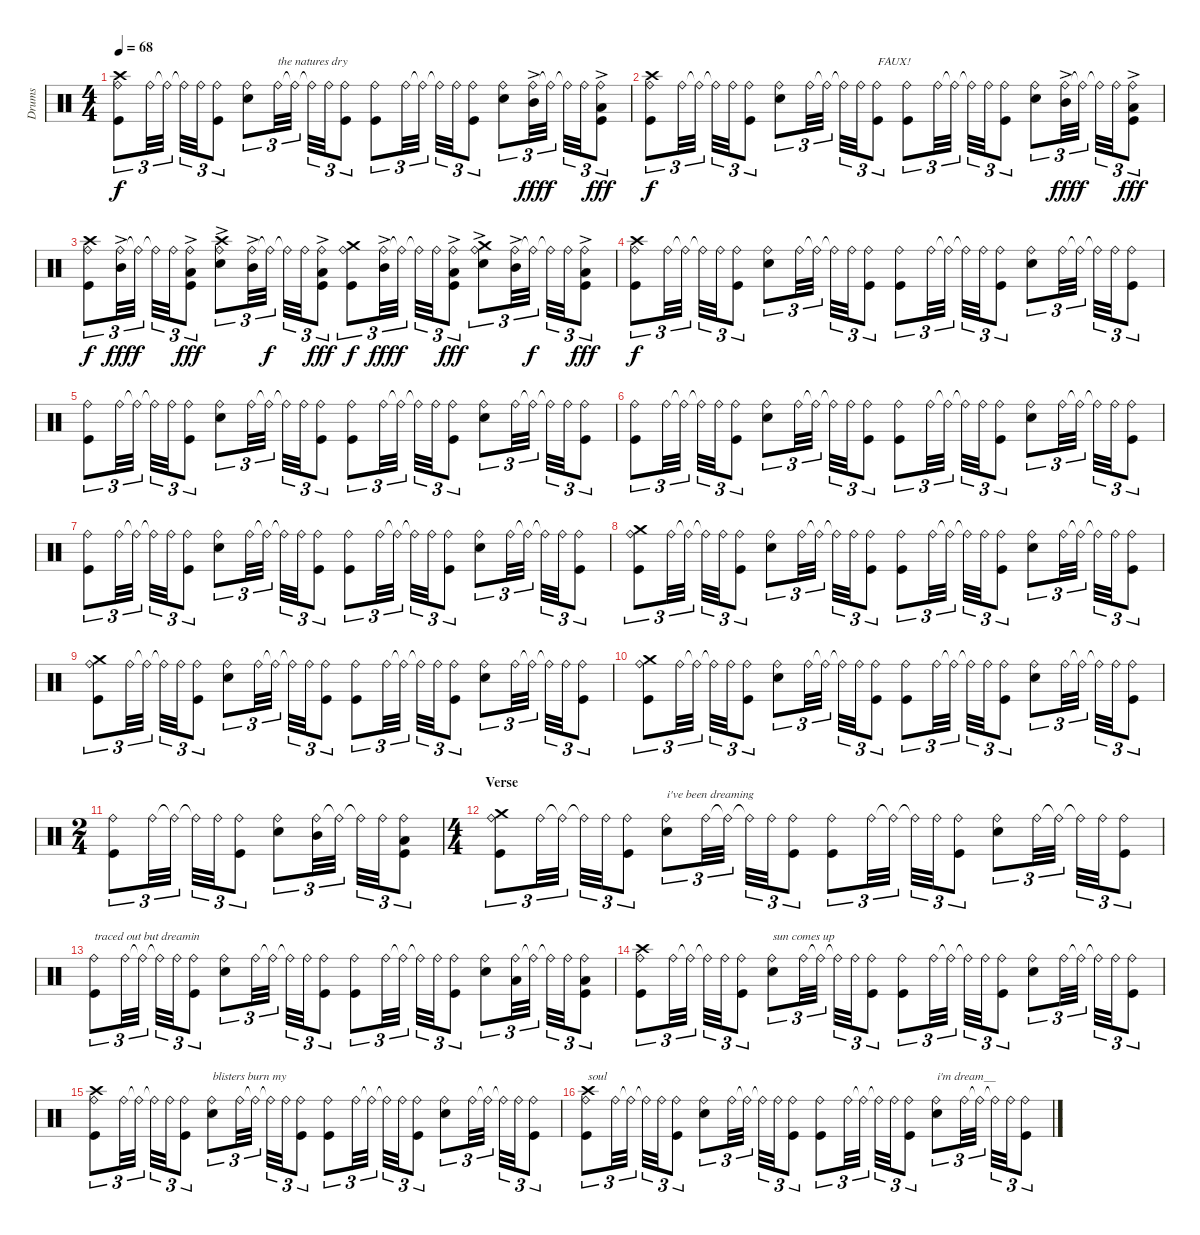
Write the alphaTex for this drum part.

\track ("Drums" "Drums") {instrument percussion}
\staff {score}
\articulation defaults
\ts (4 4)
\tempo 68
\clef neutral
\ks c
("Ride (bell)" "Crash high (hit)" "Kick (hit)").8{tu (3 2) dy f} "Ride (bell)".32{tu (3 2)} "Ride (bell)"{t}.32{tu (3 2)} "Ride (bell)"{t}.32{tu (3 2)} "Ride (bell)".32{tu (3 2)} ("Ride (bell)" "Kick (hit)").8{tu (3 2)} ("Ride (bell)" "Snare (hit) 2").8{tu (3 2)} "Ride (bell)".32{tu (3 2) txt "the natures dry"} "Ride (bell)"{t}.32{tu (3 2)} "Ride (bell)"{t}.32{tu (3 2)} "Ride (bell)".32{tu (3 2)} ("Ride (bell)" "Kick (hit)").8{tu (3 2)} ("Ride (bell)" "Kick (hit)").8{tu (3 2)} "Ride (bell)".32{tu (3 2)} "Ride (bell)"{t}.32{tu (3 2)} "Ride (bell)"{t}.32{tu (3 2)} "Ride (bell)".32{tu (3 2)} ("Ride (bell)" "Kick (hit)").8{tu (3 2)} ("Ride (bell)" "Snare (hit) 2").8{tu (3 2)} ("Ride (bell)" "Mid Tom (hit)"{ac}).32{tu (3 2) dy fff} "Ride (bell)"{t}.32{tu (3 2) dy f} "Ride (bell)"{t}.32{tu (3 2)} "Ride (bell)".32{tu (3 2)} ("Ride (bell)" "Low Tom (hit)"{ac} "Kick (hit)").8{tu (3 2) dy fff} |
("Ride (bell)" "Crash high (hit)" "Kick (hit)").8{tu (3 2) dy f} "Ride (bell)".32{tu (3 2)} "Ride (bell)"{t}.32{tu (3 2)} "Ride (bell)"{t}.32{tu (3 2)} "Ride (bell)".32{tu (3 2)} ("Ride (bell)" "Kick (hit)").8{tu (3 2)} ("Ride (bell)" "Snare (hit) 2").8{tu (3 2)} "Ride (bell)".32{tu (3 2)} "Ride (bell)"{t}.32{tu (3 2)} "Ride (bell)"{t}.32{tu (3 2)} "Ride (bell)".32{tu (3 2)} ("Ride (bell)" "Kick (hit)").8{tu (3 2) txt "FAUX!"} ("Ride (bell)" "Kick (hit)").8{tu (3 2)} "Ride (bell)".32{tu (3 2)} "Ride (bell)"{t}.32{tu (3 2)} "Ride (bell)"{t}.32{tu (3 2)} "Ride (bell)".32{tu (3 2)} ("Ride (bell)" "Kick (hit)").8{tu (3 2)} ("Ride (bell)" "Snare (hit) 2").8{tu (3 2)} ("Ride (bell)" "Mid Tom (hit)"{ac}).32{tu (3 2) dy fff} "Ride (bell)"{t}.32{tu (3 2) dy f} "Ride (bell)"{t}.32{tu (3 2)} "Ride (bell)".32{tu (3 2)} ("Ride (bell)" "Low Tom (hit)"{ac} "Kick (hit)").8{tu (3 2) dy fff} |
("Ride (bell)" "Crash high (hit)" "Kick (hit)").8{tu (3 2) dy f} ("Ride (bell)" "Mid Tom (hit)"{ac}).32{tu (3 2) dy fff} "Ride (bell)"{t}.32{tu (3 2) dy f} "Ride (bell)"{t}.32{tu (3 2)} "Ride (bell)".32{tu (3 2)} ("Ride (bell)" "Low Tom (hit)"{ac} "Kick (hit)").8{tu (3 2) dy fff} ("Ride (bell)" "Crash high (hit)" "Snare (hit) 2"{ac}).8{tu (3 2)} ("Ride (bell)" "Mid Tom (hit)"{ac}).32{tu (3 2)} "Ride (bell)"{t}.32{tu (3 2) dy f} "Ride (bell)"{t}.32{tu (3 2)} "Ride (bell)".32{tu (3 2)} ("Ride (bell)" "Low Tom (hit)"{ac} "Kick (hit)").8{tu (3 2) dy fff} ("Ride (bell)" "Crash medium (hit)" "Kick (hit)").8{tu (3 2) dy f} ("Ride (bell)" "Mid Tom (hit)"{ac}).32{tu (3 2) dy fff} "Ride (bell)"{t}.32{tu (3 2) dy f} "Ride (bell)"{t}.32{tu (3 2)} "Ride (bell)".32{tu (3 2)} ("Ride (bell)" "Low Tom (hit)"{ac} "Kick (hit)").8{tu (3 2) dy fff} ("Ride (bell)" "Crash medium (hit)" "Snare (hit) 2"{ac}).8{tu (3 2)} ("Ride (bell)" "Mid Tom (hit)"{ac}).32{tu (3 2)} "Ride (bell)"{t}.32{tu (3 2) dy f} "Ride (bell)"{t}.32{tu (3 2)} "Ride (bell)".32{tu (3 2)} ("Ride (bell)" "Low Tom (hit)"{ac} "Kick (hit)").8{tu (3 2) dy fff} |
\section ("" "")
("Ride (bell)" "Crash high (hit)" "Kick (hit)").8{tu (3 2) dy f} "Ride (bell)".32{tu (3 2)} "Ride (bell)"{t}.32{tu (3 2)} "Ride (bell)"{t}.32{tu (3 2)} "Ride (bell)".32{tu (3 2)} ("Ride (bell)" "Kick (hit)").8{tu (3 2)} ("Ride (bell)" "Snare (hit) 2").8{tu (3 2)} "Ride (bell)".32{tu (3 2)} "Ride (bell)"{t}.32{tu (3 2)} "Ride (bell)"{t}.32{tu (3 2)} "Ride (bell)".32{tu (3 2)} ("Ride (bell)" "Kick (hit)").8{tu (3 2)} ("Ride (bell)" "Kick (hit)").8{tu (3 2)} "Ride (bell)".32{tu (3 2)} "Ride (bell)"{t}.32{tu (3 2)} "Ride (bell)"{t}.32{tu (3 2)} "Ride (bell)".32{tu (3 2)} ("Ride (bell)" "Kick (hit)").8{tu (3 2)} ("Ride (bell)" "Snare (hit) 2").8{tu (3 2)} "Ride (bell)".32{tu (3 2)} "Ride (bell)"{t}.32{tu (3 2)} "Ride (bell)"{t}.32{tu (3 2)} "Ride (bell)".32{tu (3 2)} ("Ride (bell)" "Kick (hit)").8{tu (3 2)} |
("Ride (bell)" "Kick (hit)").8{tu (3 2)} "Ride (bell)".32{tu (3 2)} "Ride (bell)"{t}.32{tu (3 2)} "Ride (bell)"{t}.32{tu (3 2)} "Ride (bell)".32{tu (3 2)} ("Ride (bell)" "Kick (hit)").8{tu (3 2)} ("Ride (bell)" "Snare (hit) 2").8{tu (3 2)} "Ride (bell)".32{tu (3 2)} "Ride (bell)"{t}.32{tu (3 2)} "Ride (bell)"{t}.32{tu (3 2)} "Ride (bell)".32{tu (3 2)} ("Ride (bell)" "Kick (hit)").8{tu (3 2)} ("Ride (bell)" "Kick (hit)").8{tu (3 2)} "Ride (bell)".32{tu (3 2)} "Ride (bell)"{t}.32{tu (3 2)} "Ride (bell)"{t}.32{tu (3 2)} "Ride (bell)".32{tu (3 2)} ("Ride (bell)" "Kick (hit)").8{tu (3 2)} ("Ride (bell)" "Snare (hit) 2").8{tu (3 2)} "Ride (bell)".32{tu (3 2)} "Ride (bell)"{t}.32{tu (3 2)} "Ride (bell)"{t}.32{tu (3 2)} "Ride (bell)".32{tu (3 2)} ("Ride (bell)" "Kick (hit)").8{tu (3 2)} |
("Ride (bell)" "Kick (hit)").8{tu (3 2)} "Ride (bell)".32{tu (3 2)} "Ride (bell)"{t}.32{tu (3 2)} "Ride (bell)"{t}.32{tu (3 2)} "Ride (bell)".32{tu (3 2)} ("Ride (bell)" "Kick (hit)").8{tu (3 2)} ("Ride (bell)" "Snare (hit) 2").8{tu (3 2)} "Ride (bell)".32{tu (3 2)} "Ride (bell)"{t}.32{tu (3 2)} "Ride (bell)"{t}.32{tu (3 2)} "Ride (bell)".32{tu (3 2)} ("Ride (bell)" "Kick (hit)").8{tu (3 2)} ("Ride (bell)" "Kick (hit)").8{tu (3 2)} "Ride (bell)".32{tu (3 2)} "Ride (bell)"{t}.32{tu (3 2)} "Ride (bell)"{t}.32{tu (3 2)} "Ride (bell)".32{tu (3 2)} ("Ride (bell)" "Kick (hit)").8{tu (3 2)} ("Ride (bell)" "Snare (hit) 2").8{tu (3 2)} "Ride (bell)".32{tu (3 2)} "Ride (bell)"{t}.32{tu (3 2)} "Ride (bell)"{t}.32{tu (3 2)} "Ride (bell)".32{tu (3 2)} ("Ride (bell)" "Kick (hit)").8{tu (3 2)} |
("Ride (bell)" "Kick (hit)").8{tu (3 2)} "Ride (bell)".32{tu (3 2)} "Ride (bell)"{t}.32{tu (3 2)} "Ride (bell)"{t}.32{tu (3 2)} "Ride (bell)".32{tu (3 2)} ("Ride (bell)" "Kick (hit)").8{tu (3 2)} ("Ride (bell)" "Snare (hit) 2").8{tu (3 2)} "Ride (bell)".32{tu (3 2)} "Ride (bell)"{t}.32{tu (3 2)} "Ride (bell)"{t}.32{tu (3 2)} "Ride (bell)".32{tu (3 2)} ("Ride (bell)" "Kick (hit)").8{tu (3 2)} ("Ride (bell)" "Kick (hit)").8{tu (3 2)} "Ride (bell)".32{tu (3 2)} "Ride (bell)"{t}.32{tu (3 2)} "Ride (bell)"{t}.32{tu (3 2)} "Ride (bell)".32{tu (3 2)} ("Ride (bell)" "Kick (hit)").8{tu (3 2)} ("Ride (bell)" "Snare (hit) 2").8{tu (3 2)} "Ride (bell)".32{tu (3 2)} "Ride (bell)"{t}.32{tu (3 2)} "Ride (bell)"{t}.32{tu (3 2)} "Ride (bell)".32{tu (3 2)} ("Ride (bell)" "Kick (hit)").8{tu (3 2)} |
("Ride (bell)" "Crash medium (hit)" "Kick (hit)").8{tu (3 2)} "Ride (bell)".32{tu (3 2)} "Ride (bell)"{t}.32{tu (3 2)} "Ride (bell)"{t}.32{tu (3 2)} "Ride (bell)".32{tu (3 2)} ("Ride (bell)" "Kick (hit)").8{tu (3 2)} ("Ride (bell)" "Snare (hit) 2").8{tu (3 2)} "Ride (bell)".32{tu (3 2)} "Ride (bell)"{t}.32{tu (3 2)} "Ride (bell)"{t}.32{tu (3 2)} "Ride (bell)".32{tu (3 2)} ("Ride (bell)" "Kick (hit)").8{tu (3 2)} ("Ride (bell)" "Kick (hit)").8{tu (3 2)} "Ride (bell)".32{tu (3 2)} "Ride (bell)"{t}.32{tu (3 2)} "Ride (bell)"{t}.32{tu (3 2)} "Ride (bell)".32{tu (3 2)} ("Ride (bell)" "Kick (hit)").8{tu (3 2)} ("Ride (bell)" "Snare (hit) 2").8{tu (3 2)} "Ride (bell)".32{tu (3 2)} "Ride (bell)"{t}.32{tu (3 2)} "Ride (bell)"{t}.32{tu (3 2)} "Ride (bell)".32{tu (3 2)} ("Ride (bell)" "Kick (hit)").8{tu (3 2)} |
("Ride (bell)" "Crash medium (hit)" "Kick (hit)").8{tu (3 2)} "Ride (bell)".32{tu (3 2)} "Ride (bell)"{t}.32{tu (3 2)} "Ride (bell)"{t}.32{tu (3 2)} "Ride (bell)".32{tu (3 2)} ("Ride (bell)" "Kick (hit)").8{tu (3 2)} ("Ride (bell)" "Snare (hit) 2").8{tu (3 2)} "Ride (bell)".32{tu (3 2)} "Ride (bell)"{t}.32{tu (3 2)} "Ride (bell)"{t}.32{tu (3 2)} "Ride (bell)".32{tu (3 2)} ("Ride (bell)" "Kick (hit)").8{tu (3 2)} ("Ride (bell)" "Kick (hit)").8{tu (3 2)} "Ride (bell)".32{tu (3 2)} "Ride (bell)"{t}.32{tu (3 2)} "Ride (bell)"{t}.32{tu (3 2)} "Ride (bell)".32{tu (3 2)} ("Ride (bell)" "Kick (hit)").8{tu (3 2)} ("Ride (bell)" "Snare (hit) 2").8{tu (3 2)} "Ride (bell)".32{tu (3 2)} "Ride (bell)"{t}.32{tu (3 2)} "Ride (bell)"{t}.32{tu (3 2)} "Ride (bell)".32{tu (3 2)} ("Ride (bell)" "Kick (hit)").8{tu (3 2)} |
("Ride (bell)" "Crash medium (hit)" "Kick (hit)").8{tu (3 2)} "Ride (bell)".32{tu (3 2)} "Ride (bell)"{t}.32{tu (3 2)} "Ride (bell)"{t}.32{tu (3 2)} "Ride (bell)".32{tu (3 2)} ("Ride (bell)" "Kick (hit)").8{tu (3 2)} ("Ride (bell)" "Snare (hit) 2").8{tu (3 2)} "Ride (bell)".32{tu (3 2)} "Ride (bell)"{t}.32{tu (3 2)} "Ride (bell)"{t}.32{tu (3 2)} "Ride (bell)".32{tu (3 2)} ("Ride (bell)" "Kick (hit)").8{tu (3 2)} ("Ride (bell)" "Kick (hit)").8{tu (3 2)} "Ride (bell)".32{tu (3 2)} "Ride (bell)"{t}.32{tu (3 2)} "Ride (bell)"{t}.32{tu (3 2)} "Ride (bell)".32{tu (3 2)} ("Ride (bell)" "Kick (hit)").8{tu (3 2)} ("Ride (bell)" "Snare (hit) 2").8{tu (3 2)} "Ride (bell)".32{tu (3 2)} "Ride (bell)"{t}.32{tu (3 2)} "Ride (bell)"{t}.32{tu (3 2)} "Ride (bell)".32{tu (3 2)} ("Ride (bell)" "Kick (hit)").8{tu (3 2)} |
\ts (2 4)
("Ride (bell)" "Kick (hit)").8{tu (3 2)} "Ride (bell)".32{tu (3 2)} "Ride (bell)"{t}.32{tu (3 2)} "Ride (bell)"{t}.32{tu (3 2)} "Ride (bell)".32{tu (3 2)} ("Ride (bell)" "Kick (hit)").8{tu (3 2)} ("Ride (bell)" "Snare (hit) 2").8{tu (3 2)} ("Ride (bell)" "Mid Tom (hit)").32{tu (3 2)} "Ride (bell)"{t}.32{tu (3 2)} "Ride (bell)"{t}.32{tu (3 2)} "Ride (bell)".32{tu (3 2)} ("Ride (bell)" "Low Tom (hit)" "Kick (hit)").8{tu (3 2)} |
\ts (4 4)
\section ("" "Verse")
("Ride (bell)" "Crash medium (hit)" "Kick (hit)").8{tu (3 2)} "Ride (bell)".32{tu (3 2)} "Ride (bell)"{t}.32{tu (3 2)} "Ride (bell)"{t}.32{tu (3 2)} "Ride (bell)".32{tu (3 2)} ("Ride (bell)" "Kick (hit)").8{tu (3 2)} ("Ride (bell)" "Snare (hit) 2").8{tu (3 2) txt "i've been dreaming"} "Ride (bell)".32{tu (3 2)} "Ride (bell)"{t}.32{tu (3 2)} "Ride (bell)"{t}.32{tu (3 2)} "Ride (bell)".32{tu (3 2)} ("Ride (bell)" "Kick (hit)").8{tu (3 2)} ("Ride (bell)" "Kick (hit)").8{tu (3 2)} "Ride (bell)".32{tu (3 2)} "Ride (bell)"{t}.32{tu (3 2)} "Ride (bell)"{t}.32{tu (3 2)} "Ride (bell)".32{tu (3 2)} ("Ride (bell)" "Kick (hit)").8{tu (3 2)} ("Ride (bell)" "Snare (hit) 2").8{tu (3 2)} "Ride (bell)".32{tu (3 2)} "Ride (bell)"{t}.32{tu (3 2)} "Ride (bell)"{t}.32{tu (3 2)} "Ride (bell)".32{tu (3 2)} ("Ride (bell)" "Kick (hit)").8{tu (3 2)} |
("Ride (bell)" "Kick (hit)").8{tu (3 2) txt "traced out but dreamin"} "Ride (bell)".32{tu (3 2)} "Ride (bell)"{t}.32{tu (3 2)} "Ride (bell)"{t}.32{tu (3 2)} "Ride (bell)".32{tu (3 2)} ("Ride (bell)" "Kick (hit)").8{tu (3 2)} ("Ride (bell)" "Snare (hit) 2").8{tu (3 2)} "Ride (bell)".32{tu (3 2)} "Ride (bell)"{t}.32{tu (3 2)} "Ride (bell)"{t}.32{tu (3 2)} "Ride (bell)".32{tu (3 2)} ("Ride (bell)" "Kick (hit)").8{tu (3 2)} ("Ride (bell)" "Kick (hit)").8{tu (3 2)} "Ride (bell)".32{tu (3 2)} "Ride (bell)"{t}.32{tu (3 2)} "Ride (bell)"{t}.32{tu (3 2)} "Ride (bell)".32{tu (3 2)} ("Ride (bell)" "Kick (hit)").8{tu (3 2)} ("Ride (bell)" "Snare (hit) 2").8{tu (3 2)} ("Ride (bell)" "Low Tom (hit)").32{tu (3 2)} "Ride (bell)"{t}.32{tu (3 2)} "Ride (bell)"{t}.32{tu (3 2)} "Ride (bell)".32{tu (3 2)} ("Ride (bell)" "Low Tom (hit)" "Kick (hit)").8{tu (3 2)} |
("Ride (bell)" "Crash high (hit)" "Kick (hit)").8{tu (3 2)} "Ride (bell)".32{tu (3 2)} "Ride (bell)"{t}.32{tu (3 2)} "Ride (bell)"{t}.32{tu (3 2)} "Ride (bell)".32{tu (3 2)} ("Ride (bell)" "Kick (hit)").8{tu (3 2)} ("Ride (bell)" "Snare (hit) 2").8{tu (3 2) txt "sun comes up"} "Ride (bell)".32{tu (3 2)} "Ride (bell)"{t}.32{tu (3 2)} "Ride (bell)"{t}.32{tu (3 2)} "Ride (bell)".32{tu (3 2)} ("Ride (bell)" "Kick (hit)").8{tu (3 2)} ("Ride (bell)" "Kick (hit)").8{tu (3 2)} "Ride (bell)".32{tu (3 2)} "Ride (bell)"{t}.32{tu (3 2)} "Ride (bell)"{t}.32{tu (3 2)} "Ride (bell)".32{tu (3 2)} ("Ride (bell)" "Kick (hit)").8{tu (3 2)} ("Ride (bell)" "Snare (hit) 2").8{tu (3 2)} "Ride (bell)".32{tu (3 2)} "Ride (bell)"{t}.32{tu (3 2)} "Ride (bell)"{t}.32{tu (3 2)} "Ride (bell)".32{tu (3 2)} ("Ride (bell)" "Kick (hit)").8{tu (3 2)} |
("Ride (bell)" "Crash high (hit)" "Kick (hit)").8{tu (3 2)} "Ride (bell)".32{tu (3 2)} "Ride (bell)"{t}.32{tu (3 2)} "Ride (bell)"{t}.32{tu (3 2)} "Ride (bell)".32{tu (3 2)} ("Ride (bell)" "Kick (hit)").8{tu (3 2)} ("Ride (bell)" "Snare (hit) 2").8{tu (3 2) txt "blisters burn my "} "Ride (bell)".32{tu (3 2)} "Ride (bell)"{t}.32{tu (3 2)} "Ride (bell)"{t}.32{tu (3 2)} "Ride (bell)".32{tu (3 2)} ("Ride (bell)" "Kick (hit)").8{tu (3 2)} ("Ride (bell)" "Kick (hit)").8{tu (3 2)} "Ride (bell)".32{tu (3 2)} "Ride (bell)"{t}.32{tu (3 2)} "Ride (bell)"{t}.32{tu (3 2)} "Ride (bell)".32{tu (3 2)} ("Ride (bell)" "Kick (hit)").8{tu (3 2)} ("Ride (bell)" "Snare (hit) 2").8{tu (3 2)} "Ride (bell)".32{tu (3 2)} "Ride (bell)"{t}.32{tu (3 2)} "Ride (bell)"{t}.32{tu (3 2)} "Ride (bell)".32{tu (3 2)} ("Ride (bell)" "Kick (hit)").8{tu (3 2)} |
("Ride (bell)" "Crash high (hit)" "Kick (hit)").8{tu (3 2) txt "soul"} "Ride (bell)".32{tu (3 2)} "Ride (bell)"{t}.32{tu (3 2)} "Ride (bell)"{t}.32{tu (3 2)} "Ride (bell)".32{tu (3 2)} ("Ride (bell)" "Kick (hit)").8{tu (3 2)} ("Ride (bell)" "Snare (hit) 2").8{tu (3 2)} "Ride (bell)".32{tu (3 2)} "Ride (bell)"{t}.32{tu (3 2)} "Ride (bell)"{t}.32{tu (3 2)} "Ride (bell)".32{tu (3 2)} ("Ride (bell)" "Kick (hit)").8{tu (3 2)} ("Ride (bell)" "Kick (hit)").8{tu (3 2)} "Ride (bell)".32{tu (3 2)} "Ride (bell)"{t}.32{tu (3 2)} "Ride (bell)"{t}.32{tu (3 2)} "Ride (bell)".32{tu (3 2)} ("Ride (bell)" "Kick (hit)").8{tu (3 2)} ("Ride (bell)" "Snare (hit) 2").8{tu (3 2) txt "i'm dream__"} "Ride (bell)".32{tu (3 2)} "Ride (bell)"{t}.32{tu (3 2)} "Ride (bell)"{t}.32{tu (3 2)} "Ride (bell)".32{tu (3 2)} ("Ride (bell)" "Kick (hit)").8{tu (3 2)}
